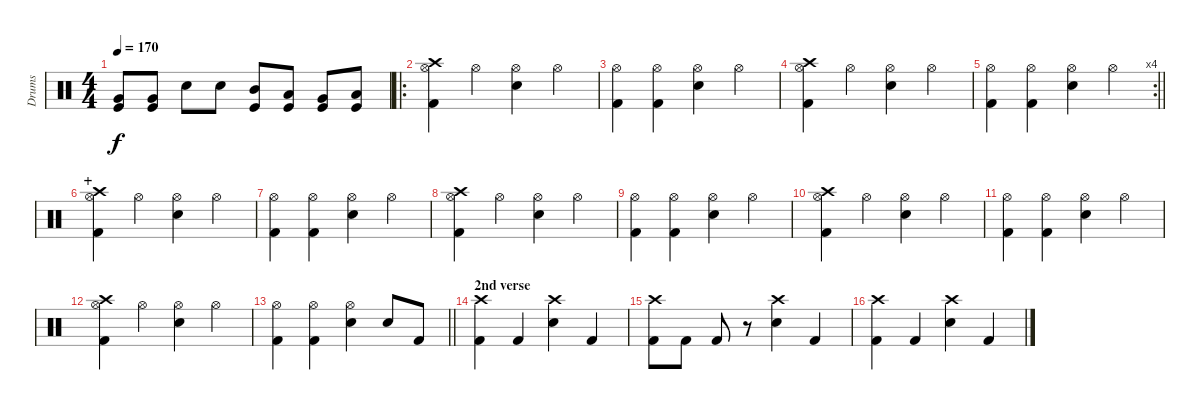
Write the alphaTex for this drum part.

\track ("Drums" "Drums") {instrument percussion}
\staff {score}
\articulation defaults
\ts (4 4)
\tempo 170
\clef neutral
\ks c
("Very Low Tom (hit)" "Kick (hit)").8{dy f} ("Very Low Tom (hit)" "Kick (hit)").8 "Snare (hit) 2".8 "Snare (hit) 2".8 ("Mid Tom (hit)" "Kick (hit)").8 ("Low Tom (hit)" "Kick (hit)").8 ("Very Low Tom (hit)" "Kick (hit)").8 ("Low Floor Tom (hit)" "Kick (hit)").8 |
\ro
("Hi-Hat (open)" "Crash high (hit)" "Kick (hit) 2").4 "Hi-Hat (open)".4 ("Hi-Hat (open)" "Snare (hit) 2").4 "Hi-Hat (open)".4 |
("Hi-Hat (open)" "Kick (hit) 2").4 ("Hi-Hat (open)" "Kick (hit) 2").4 ("Hi-Hat (open)" "Snare (hit) 2").4 "Hi-Hat (open)".4 |
("Hi-Hat (open)" "Crash high (hit)" "Kick (hit) 2").4 "Hi-Hat (open)".4 ("Hi-Hat (open)" "Snare (hit) 2").4 "Hi-Hat (open)".4 |
\rc 4
\barLineRight lightlight
("Hi-Hat (open)" "Kick (hit) 2").4 ("Hi-Hat (open)" "Kick (hit) 2").4 ("Hi-Hat (open)" "Snare (hit) 2").4 "Hi-Hat (open)".4 |
\section ("" "+")
("Hi-Hat (open)" "Crash high (hit)" "Kick (hit) 2").4 "Hi-Hat (open)".4 ("Hi-Hat (open)" "Snare (hit) 2").4 "Hi-Hat (open)".4 |
("Hi-Hat (open)" "Kick (hit) 2").4 ("Hi-Hat (open)" "Kick (hit) 2").4 ("Hi-Hat (open)" "Snare (hit) 2").4 "Hi-Hat (open)".4 |
("Hi-Hat (open)" "Crash high (hit)" "Kick (hit) 2").4 "Hi-Hat (open)".4 ("Hi-Hat (open)" "Snare (hit) 2").4 "Hi-Hat (open)".4 |
("Hi-Hat (open)" "Kick (hit) 2").4 ("Hi-Hat (open)" "Kick (hit) 2").4 ("Hi-Hat (open)" "Snare (hit) 2").4 "Hi-Hat (open)".4 |
("Hi-Hat (open)" "Crash high (hit)" "Kick (hit) 2").4 "Hi-Hat (open)".4 ("Hi-Hat (open)" "Snare (hit) 2").4 "Hi-Hat (open)".4 |
("Hi-Hat (open)" "Kick (hit) 2").4 ("Hi-Hat (open)" "Kick (hit) 2").4 ("Hi-Hat (open)" "Snare (hit) 2").4 "Hi-Hat (open)".4 |
("Hi-Hat (open)" "Crash high (hit)" "Kick (hit) 2").4 "Hi-Hat (open)".4 ("Hi-Hat (open)" "Snare (hit) 2").4 "Hi-Hat (open)".4 |
\barLineRight lightlight
("Hi-Hat (open)" "Kick (hit) 2").4 ("Hi-Hat (open)" "Kick (hit) 2").4 ("Hi-Hat (open)" "Snare (hit) 2").4 "Snare (hit) 2".8 "Kick (hit) 2".8 |
\section ("" "2nd verse")
("Crash high (hit)" "Kick (hit) 2").4 "Kick (hit) 2".4 ("Crash high (hit)" "Snare (hit) 2").4 "Kick (hit) 2".4 |
("Crash high (hit)" "Kick (hit) 2").8 "Kick (hit) 2".8 "Kick (hit) 2".8 r.8 ("Crash high (hit)" "Snare (hit) 2").4 "Kick (hit) 2".4 |
("Crash high (hit)" "Kick (hit) 2").4 "Kick (hit) 2".4 ("Crash high (hit)" "Snare (hit) 2").4 "Kick (hit) 2".4
